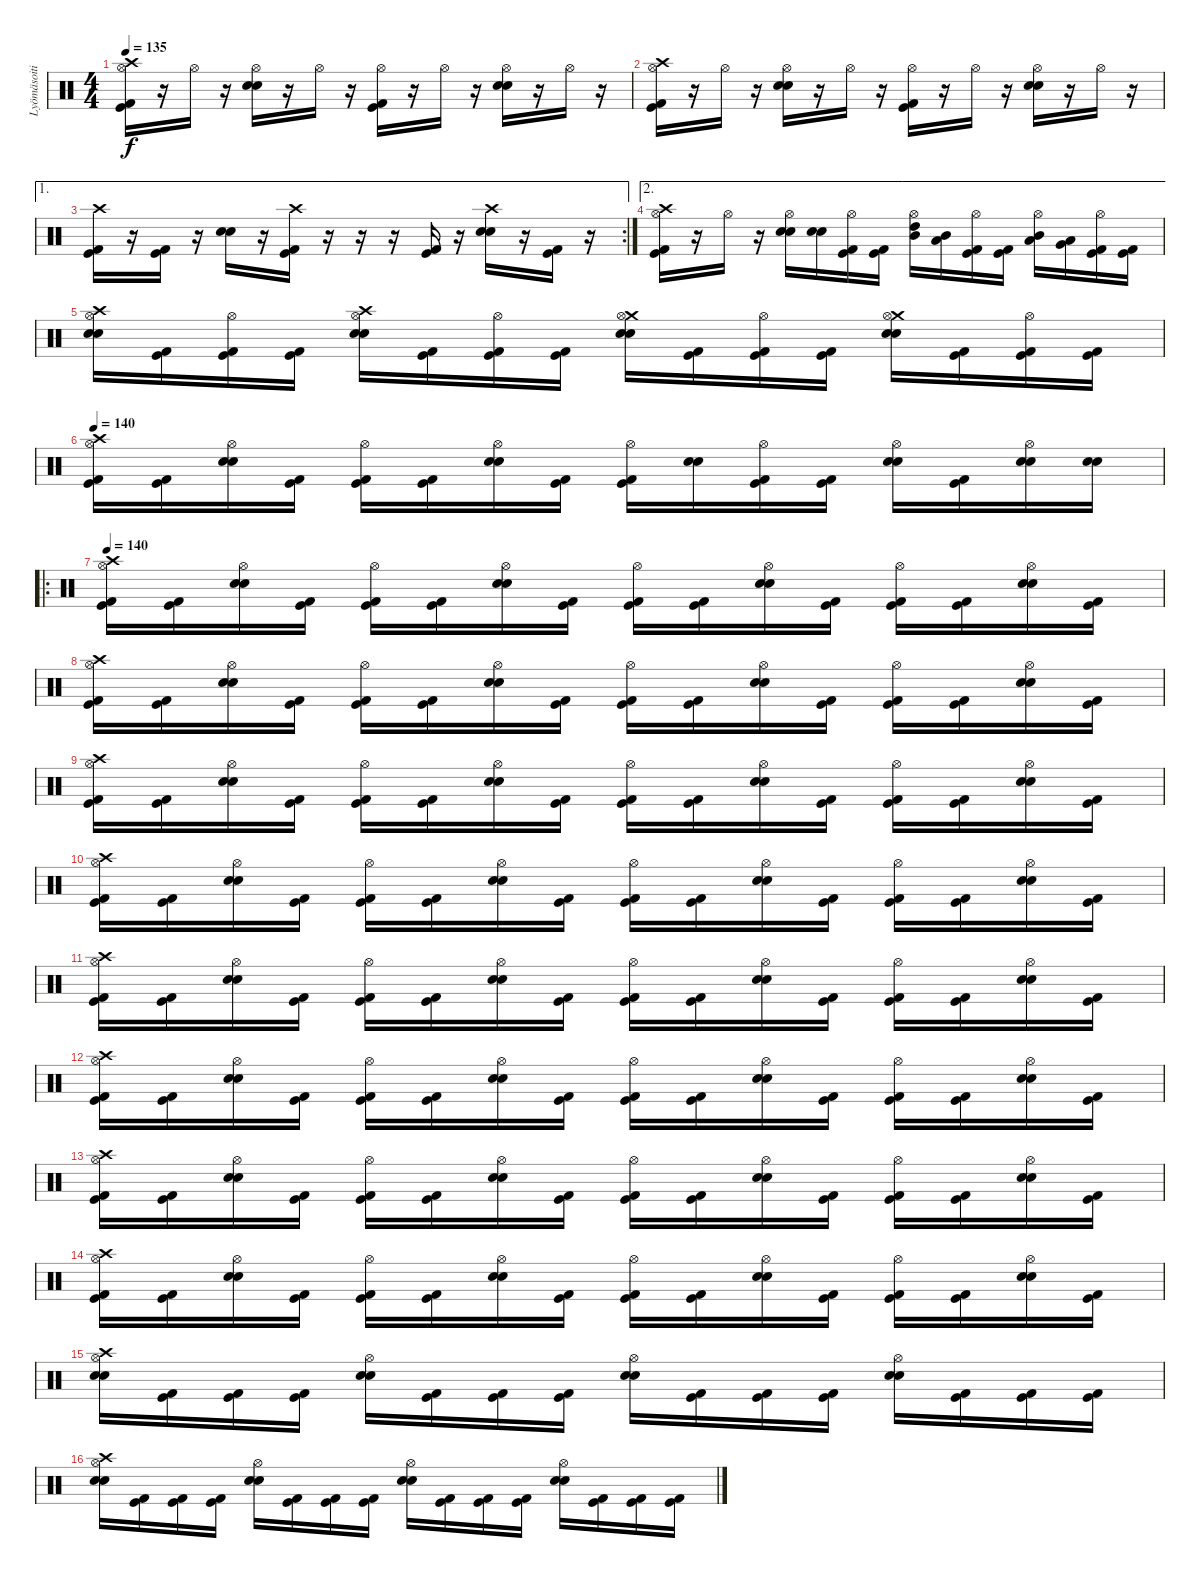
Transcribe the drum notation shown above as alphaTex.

\track ("Lyömäsoitin" "Lyömäsoiti") {instrument percussion}
\staff {score}
\articulation defaults
\ts (4 4)
\tempo 135
\clef neutral
\ks c
("Crash high (hit)" "Hi-Hat (open)" "Kick (hit) 2" "Kick (hit)").16{dy f} r.16 "Hi-Hat (open)".16 r.16 ("Hi-Hat (open)" "Electric Snare (hit)" "Snare (hit) 2").16 r.16 "Hi-Hat (open)".16 r.16 ("Hi-Hat (open)" "Kick (hit) 2" "Kick (hit)").16 r.16 "Hi-Hat (open)".16 r.16 ("Hi-Hat (open)" "Electric Snare (hit)" "Snare (hit) 2").16 r.16 "Hi-Hat (open)".16 r.16 |
("Crash high (hit)" "Hi-Hat (open)" "Kick (hit) 2" "Kick (hit)").16 r.16 "Hi-Hat (open)".16 r.16 ("Hi-Hat (open)" "Electric Snare (hit)" "Snare (hit) 2").16 r.16 "Hi-Hat (open)".16 r.16 ("Hi-Hat (open)" "Kick (hit) 2" "Kick (hit)").16 r.16 "Hi-Hat (open)".16 r.16 ("Hi-Hat (open)" "Electric Snare (hit)" "Snare (hit) 2").16 r.16 "Hi-Hat (open)".16 r.16 |
\ae 1
\rc 2
("Crash high (hit)" "Kick (hit) 2" "Kick (hit)").16 r.16 ("Kick (hit) 2" "Kick (hit)").16 r.16 ("Electric Snare (hit)" "Snare (hit) 2").16 r.16 ("Crash high (hit)" "Kick (hit) 2" "Kick (hit)").16 r.16 r.16 r.16 ("Kick (hit) 2" "Kick (hit)").16 r.16 ("Crash high (hit)" "Electric Snare (hit)" "Snare (hit) 2").16 r.16 ("Kick (hit) 2" "Kick (hit)").16 r.16 |
\ae 2
("Crash high (hit)" "Hi-Hat (open)" "Kick (hit) 2" "Kick (hit)").16 r.16 "Hi-Hat (open)".16 r.16 ("Hi-Hat (open)" "Electric Snare (hit)" "Snare (hit) 2").16 ("Electric Snare (hit)" "Snare (hit) 2").16 ("Hi-Hat (open)" "Kick (hit) 2" "Kick (hit)").16 ("Kick (hit) 2" "Kick (hit)").16 ("Hi-Hat (open)" "High Tom (hit)" "Mid Tom (hit)").16 ("Mid Tom (hit)" "Low Tom (hit)").16 ("Hi-Hat (open)" "Kick (hit) 2" "Kick (hit)").16 ("Kick (hit) 2" "Kick (hit)").16 ("Hi-Hat (open)" "Mid Tom (hit)" "Low Tom (hit)").16 ("Low Tom (hit)" "Very Low Tom (hit)").16 ("Hi-Hat (open)" "Kick (hit) 2" "Kick (hit)").16 ("Kick (hit) 2" "Kick (hit)").16 |
("Crash high (hit)" "Hi-Hat (open)" "Snare (hit) 2" "Electric Snare (hit)").16 ("Kick (hit) 2" "Kick (hit)").16 ("Hi-Hat (open)" "Kick (hit) 2" "Kick (hit)").16 ("Kick (hit) 2" "Kick (hit)").16 ("Crash high (hit)" "Hi-Hat (open)" "Snare (hit) 2" "Electric Snare (hit)").16 ("Kick (hit) 2" "Kick (hit)").16 ("Hi-Hat (open)" "Kick (hit) 2" "Kick (hit)").16 ("Kick (hit) 2" "Kick (hit)").16 ("Crash medium (hit)" "Hi-Hat (open)" "Snare (hit) 2" "Electric Snare (hit)").16 ("Kick (hit) 2" "Kick (hit)").16 ("Hi-Hat (open)" "Kick (hit)" "Kick (hit) 2").16 ("Kick (hit) 2" "Kick (hit)").16 ("Crash medium (hit)" "Hi-Hat (open)" "Snare (hit) 2" "Electric Snare (hit)").16 ("Kick (hit)" "Kick (hit) 2").16 ("Hi-Hat (open)" "Kick (hit) 2" "Kick (hit)").16 ("Kick (hit) 2" "Kick (hit)").16 |
\tempo 140
("Hi-Hat (open)" "Crash high (hit)" "Kick (hit) 2" "Kick (hit)").16 ("Kick (hit) 2" "Kick (hit)").16 ("Hi-Hat (open)" "Electric Snare (hit)" "Snare (hit) 2").16 ("Kick (hit) 2" "Kick (hit)").16 ("Hi-Hat (open)" "Kick (hit) 2" "Kick (hit)").16 ("Kick (hit) 2" "Kick (hit)").16 ("Hi-Hat (open)" "Electric Snare (hit)" "Snare (hit) 2").16 ("Kick (hit) 2" "Kick (hit)").16 ("Hi-Hat (open)" "Kick (hit) 2" "Kick (hit)").16 ("Electric Snare (hit)" "Snare (hit) 2").16 ("Hi-Hat (open)" "Kick (hit) 2" "Kick (hit)").16 ("Kick (hit) 2" "Kick (hit)").16 ("Hi-Hat (open)" "Electric Snare (hit)" "Snare (hit) 2").16 ("Kick (hit)" "Kick (hit) 2").16 ("Hi-Hat (open)" "Snare (hit) 2" "Electric Snare (hit)").16 ("Snare (hit) 2" "Electric Snare (hit)").16 |
\ro
\tempo 140
("Crash high (hit)" "Hi-Hat (open)" "Kick (hit) 2" "Kick (hit)").16 ("Kick (hit) 2" "Kick (hit)").16 ("Snare (hit) 2" "Hi-Hat (open)" "Electric Snare (hit)").16 ("Kick (hit) 2" "Kick (hit)").16 ("Hi-Hat (open)" "Kick (hit) 2" "Kick (hit)").16 ("Kick (hit) 2" "Kick (hit)").16 ("Snare (hit) 2" "Hi-Hat (open)" "Electric Snare (hit)").16 ("Kick (hit) 2" "Kick (hit)").16 ("Hi-Hat (open)" "Kick (hit) 2" "Kick (hit)").16 ("Kick (hit) 2" "Kick (hit)").16 ("Snare (hit) 2" "Hi-Hat (open)" "Electric Snare (hit)").16 ("Kick (hit) 2" "Kick (hit)").16 ("Hi-Hat (open)" "Kick (hit) 2" "Kick (hit)").16 ("Kick (hit) 2" "Kick (hit)").16 ("Snare (hit) 2" "Hi-Hat (open)" "Electric Snare (hit)").16 ("Kick (hit) 2" "Kick (hit)").16 |
("Crash high (hit)" "Hi-Hat (open)" "Kick (hit) 2" "Kick (hit)").16 ("Kick (hit) 2" "Kick (hit)").16 ("Snare (hit) 2" "Hi-Hat (open)" "Electric Snare (hit)").16 ("Kick (hit) 2" "Kick (hit)").16 ("Hi-Hat (open)" "Kick (hit) 2" "Kick (hit)").16 ("Kick (hit) 2" "Kick (hit)").16 ("Snare (hit) 2" "Hi-Hat (open)" "Electric Snare (hit)").16 ("Kick (hit) 2" "Kick (hit)").16 ("Hi-Hat (open)" "Kick (hit) 2" "Kick (hit)").16 ("Kick (hit) 2" "Kick (hit)").16 ("Snare (hit) 2" "Hi-Hat (open)" "Electric Snare (hit)").16 ("Kick (hit) 2" "Kick (hit)").16 ("Hi-Hat (open)" "Kick (hit) 2" "Kick (hit)").16 ("Kick (hit) 2" "Kick (hit)").16 ("Snare (hit) 2" "Hi-Hat (open)" "Electric Snare (hit)").16 ("Kick (hit) 2" "Kick (hit)").16 |
("Crash high (hit)" "Hi-Hat (open)" "Kick (hit) 2" "Kick (hit)").16 ("Kick (hit) 2" "Kick (hit)").16 ("Snare (hit) 2" "Hi-Hat (open)" "Electric Snare (hit)").16 ("Kick (hit) 2" "Kick (hit)").16 ("Hi-Hat (open)" "Kick (hit) 2" "Kick (hit)").16 ("Kick (hit) 2" "Kick (hit)").16 ("Snare (hit) 2" "Hi-Hat (open)" "Electric Snare (hit)").16 ("Kick (hit) 2" "Kick (hit)").16 ("Hi-Hat (open)" "Kick (hit) 2" "Kick (hit)").16 ("Kick (hit) 2" "Kick (hit)").16 ("Snare (hit) 2" "Hi-Hat (open)" "Electric Snare (hit)").16 ("Kick (hit) 2" "Kick (hit)").16 ("Hi-Hat (open)" "Kick (hit) 2" "Kick (hit)").16 ("Kick (hit) 2" "Kick (hit)").16 ("Snare (hit) 2" "Hi-Hat (open)" "Electric Snare (hit)").16 ("Kick (hit) 2" "Kick (hit)").16 |
("Crash high (hit)" "Hi-Hat (open)" "Kick (hit) 2" "Kick (hit)").16 ("Kick (hit) 2" "Kick (hit)").16 ("Snare (hit) 2" "Hi-Hat (open)" "Electric Snare (hit)").16 ("Kick (hit) 2" "Kick (hit)").16 ("Hi-Hat (open)" "Kick (hit) 2" "Kick (hit)").16 ("Kick (hit) 2" "Kick (hit)").16 ("Snare (hit) 2" "Hi-Hat (open)" "Electric Snare (hit)").16 ("Kick (hit) 2" "Kick (hit)").16 ("Hi-Hat (open)" "Kick (hit) 2" "Kick (hit)").16 ("Kick (hit) 2" "Kick (hit)").16 ("Snare (hit) 2" "Hi-Hat (open)" "Electric Snare (hit)").16 ("Kick (hit) 2" "Kick (hit)").16 ("Hi-Hat (open)" "Kick (hit) 2" "Kick (hit)").16 ("Kick (hit) 2" "Kick (hit)").16 ("Snare (hit) 2" "Hi-Hat (open)" "Electric Snare (hit)").16 ("Kick (hit) 2" "Kick (hit)").16 |
("Crash high (hit)" "Hi-Hat (open)" "Kick (hit) 2" "Kick (hit)").16 ("Kick (hit) 2" "Kick (hit)").16 ("Snare (hit) 2" "Hi-Hat (open)" "Electric Snare (hit)").16 ("Kick (hit) 2" "Kick (hit)").16 ("Hi-Hat (open)" "Kick (hit) 2" "Kick (hit)").16 ("Kick (hit) 2" "Kick (hit)").16 ("Snare (hit) 2" "Hi-Hat (open)" "Electric Snare (hit)").16 ("Kick (hit) 2" "Kick (hit)").16 ("Hi-Hat (open)" "Kick (hit) 2" "Kick (hit)").16 ("Kick (hit) 2" "Kick (hit)").16 ("Snare (hit) 2" "Hi-Hat (open)" "Electric Snare (hit)").16 ("Kick (hit) 2" "Kick (hit)").16 ("Hi-Hat (open)" "Kick (hit) 2" "Kick (hit)").16 ("Kick (hit) 2" "Kick (hit)").16 ("Snare (hit) 2" "Hi-Hat (open)" "Electric Snare (hit)").16 ("Kick (hit) 2" "Kick (hit)").16 |
("Crash high (hit)" "Hi-Hat (open)" "Kick (hit) 2" "Kick (hit)").16 ("Kick (hit) 2" "Kick (hit)").16 ("Snare (hit) 2" "Hi-Hat (open)" "Electric Snare (hit)").16 ("Kick (hit) 2" "Kick (hit)").16 ("Hi-Hat (open)" "Kick (hit) 2" "Kick (hit)").16 ("Kick (hit) 2" "Kick (hit)").16 ("Snare (hit) 2" "Hi-Hat (open)" "Electric Snare (hit)").16 ("Kick (hit) 2" "Kick (hit)").16 ("Hi-Hat (open)" "Kick (hit) 2" "Kick (hit)").16 ("Kick (hit) 2" "Kick (hit)").16 ("Snare (hit) 2" "Hi-Hat (open)" "Electric Snare (hit)").16 ("Kick (hit) 2" "Kick (hit)").16 ("Hi-Hat (open)" "Kick (hit) 2" "Kick (hit)").16 ("Kick (hit) 2" "Kick (hit)").16 ("Snare (hit) 2" "Hi-Hat (open)" "Electric Snare (hit)").16 ("Kick (hit) 2" "Kick (hit)").16 |
("Crash high (hit)" "Hi-Hat (open)" "Kick (hit) 2" "Kick (hit)").16 ("Kick (hit) 2" "Kick (hit)").16 ("Snare (hit) 2" "Hi-Hat (open)" "Electric Snare (hit)").16 ("Kick (hit) 2" "Kick (hit)").16 ("Hi-Hat (open)" "Kick (hit) 2" "Kick (hit)").16 ("Kick (hit) 2" "Kick (hit)").16 ("Snare (hit) 2" "Hi-Hat (open)" "Electric Snare (hit)").16 ("Kick (hit) 2" "Kick (hit)").16 ("Hi-Hat (open)" "Kick (hit) 2" "Kick (hit)").16 ("Kick (hit) 2" "Kick (hit)").16 ("Snare (hit) 2" "Hi-Hat (open)" "Electric Snare (hit)").16 ("Kick (hit) 2" "Kick (hit)").16 ("Hi-Hat (open)" "Kick (hit) 2" "Kick (hit)").16 ("Kick (hit) 2" "Kick (hit)").16 ("Snare (hit) 2" "Hi-Hat (open)" "Electric Snare (hit)").16 ("Kick (hit) 2" "Kick (hit)").16 |
("Crash high (hit)" "Hi-Hat (open)" "Kick (hit) 2" "Kick (hit)").16 ("Kick (hit) 2" "Kick (hit)").16 ("Snare (hit) 2" "Hi-Hat (open)" "Electric Snare (hit)").16 ("Kick (hit) 2" "Kick (hit)").16 ("Hi-Hat (open)" "Kick (hit) 2" "Kick (hit)").16 ("Kick (hit) 2" "Kick (hit)").16 ("Snare (hit) 2" "Hi-Hat (open)" "Electric Snare (hit)").16 ("Kick (hit) 2" "Kick (hit)").16 ("Hi-Hat (open)" "Kick (hit) 2" "Kick (hit)").16 ("Kick (hit) 2" "Kick (hit)").16 ("Snare (hit) 2" "Hi-Hat (open)" "Electric Snare (hit)").16 ("Kick (hit) 2" "Kick (hit)").16 ("Hi-Hat (open)" "Kick (hit) 2" "Kick (hit)").16 ("Kick (hit) 2" "Kick (hit)").16 ("Snare (hit) 2" "Hi-Hat (open)" "Electric Snare (hit)").16 ("Kick (hit) 2" "Kick (hit)").16 |
("Crash high (hit)" "Hi-Hat (open)" "Snare (hit) 2" "Electric Snare (hit)").16 ("Kick (hit) 2" "Kick (hit)").16 ("Kick (hit) 2" "Kick (hit)").16 ("Kick (hit) 2" "Kick (hit)").16 ("Hi-Hat (open)" "Snare (hit) 2" "Electric Snare (hit)").16 ("Kick (hit) 2" "Kick (hit)").16 ("Kick (hit) 2" "Kick (hit)").16 ("Kick (hit) 2" "Kick (hit)").16 ("Hi-Hat (open)" "Snare (hit) 2" "Electric Snare (hit)").16 ("Kick (hit) 2" "Kick (hit)").16 ("Kick (hit) 2" "Kick (hit)").16 ("Kick (hit) 2" "Kick (hit)").16 ("Hi-Hat (open)" "Snare (hit) 2" "Electric Snare (hit)").16 ("Kick (hit) 2" "Kick (hit)").16 ("Kick (hit) 2" "Kick (hit)").16 ("Kick (hit) 2" "Kick (hit)").16 |
("Crash high (hit)" "Hi-Hat (open)" "Snare (hit) 2" "Electric Snare (hit)").16 ("Kick (hit) 2" "Kick (hit)").16 ("Kick (hit) 2" "Kick (hit)").16 ("Kick (hit) 2" "Kick (hit)").16 ("Hi-Hat (open)" "Snare (hit) 2" "Electric Snare (hit)").16 ("Kick (hit) 2" "Kick (hit)").16 ("Kick (hit) 2" "Kick (hit)").16 ("Kick (hit) 2" "Kick (hit)").16 ("Hi-Hat (open)" "Snare (hit) 2" "Electric Snare (hit)").16 ("Kick (hit) 2" "Kick (hit)").16 ("Kick (hit) 2" "Kick (hit)").16 ("Kick (hit) 2" "Kick (hit)").16 ("Hi-Hat (open)" "Snare (hit) 2" "Electric Snare (hit)").16 ("Kick (hit) 2" "Kick (hit)").16 ("Kick (hit) 2" "Kick (hit)").16 ("Kick (hit) 2" "Kick (hit)").16
